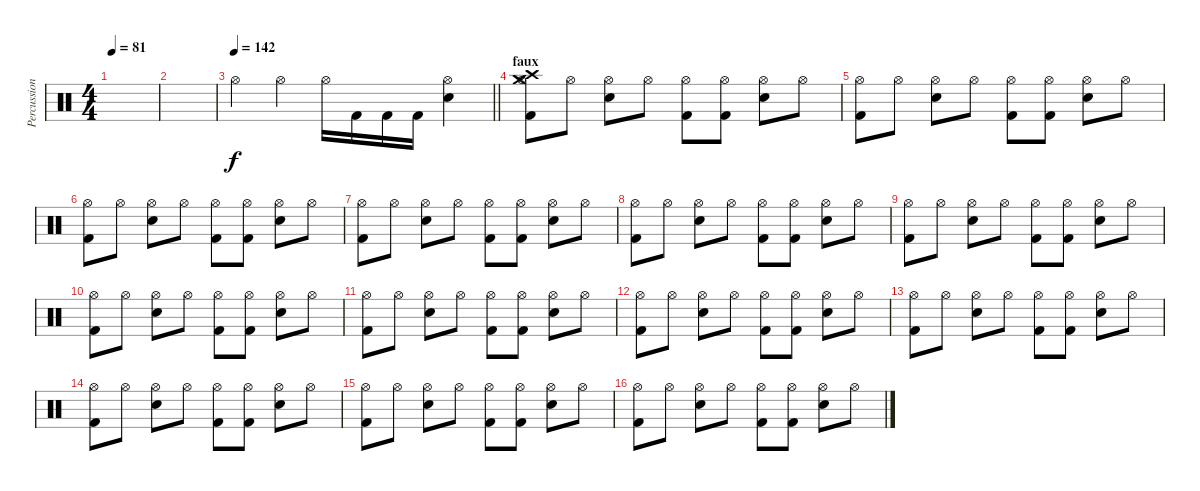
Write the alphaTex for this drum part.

\track ("Percussions" "Percussion") {instrument percussion}
\staff {score}
\articulation defaults
\ts (4 4)
\tempo 81
\clef neutral
\ks c
|
|
\tempo 142
\barLineRight lightlight "Hi-Hat (open)".4 "Hi-Hat (open)".4 "Hi-Hat (open)".16 "Kick (hit) 2".16 "Kick (hit) 2".16 "Kick (hit) 2".16
("Hi-Hat (open)" "Snare (hit) 2").4 |
\section ("" "faux")
("Crash medium (hit)" "Crash high (hit)" "Hi-Hat (open)" "Kick (hit) 2").8 "Hi-Hat (open)".8 ("Hi-Hat (open)" "Snare (hit) 2").8 "Hi-Hat (open)".8 ("Hi-Hat (open)" "Kick (hit) 2").8 ("Hi-Hat (open)" "Kick (hit) 2").8 ("Hi-Hat (open)" "Snare (hit) 2").8 "Hi-Hat (open)".8 |
("Hi-Hat (open)" "Kick (hit) 2").8 "Hi-Hat (open)".8 ("Hi-Hat (open)" "Snare (hit) 2").8 "Hi-Hat (open)".8 ("Hi-Hat (open)" "Kick (hit) 2").8 ("Hi-Hat (open)" "Kick (hit) 2").8 ("Hi-Hat (open)" "Snare (hit) 2").8 "Hi-Hat (open)".8 |
("Hi-Hat (open)" "Kick (hit) 2").8 "Hi-Hat (open)".8 ("Hi-Hat (open)" "Snare (hit) 2").8 "Hi-Hat (open)".8 ("Hi-Hat (open)" "Kick (hit) 2").8 ("Hi-Hat (open)" "Kick (hit) 2").8 ("Hi-Hat (open)" "Snare (hit) 2").8 "Hi-Hat (open)".8 |
("Hi-Hat (open)" "Kick (hit) 2").8 "Hi-Hat (open)".8 ("Hi-Hat (open)" "Snare (hit) 2").8 "Hi-Hat (open)".8 ("Hi-Hat (open)" "Kick (hit) 2").8 ("Hi-Hat (open)" "Kick (hit) 2").8 ("Hi-Hat (open)" "Snare (hit) 2").8 "Hi-Hat (open)".8 |
("Hi-Hat (open)" "Kick (hit) 2").8 "Hi-Hat (open)".8 ("Hi-Hat (open)" "Snare (hit) 2").8 "Hi-Hat (open)".8 ("Hi-Hat (open)" "Kick (hit) 2").8 ("Hi-Hat (open)" "Kick (hit) 2").8 ("Hi-Hat (open)" "Snare (hit) 2").8 "Hi-Hat (open)".8 |
("Hi-Hat (open)" "Kick (hit) 2").8 "Hi-Hat (open)".8 ("Hi-Hat (open)" "Snare (hit) 2").8 "Hi-Hat (open)".8 ("Hi-Hat (open)" "Kick (hit) 2").8 ("Hi-Hat (open)" "Kick (hit) 2").8 ("Hi-Hat (open)" "Snare (hit) 2").8 "Hi-Hat (open)".8 |
("Hi-Hat (open)" "Kick (hit) 2").8 "Hi-Hat (open)".8 ("Hi-Hat (open)" "Snare (hit) 2").8 "Hi-Hat (open)".8 ("Hi-Hat (open)" "Kick (hit) 2").8 ("Hi-Hat (open)" "Kick (hit) 2").8 ("Hi-Hat (open)" "Snare (hit) 2").8 "Hi-Hat (open)".8 |
("Hi-Hat (open)" "Kick (hit) 2").8 "Hi-Hat (open)".8 ("Hi-Hat (open)" "Snare (hit) 2").8 "Hi-Hat (open)".8 ("Hi-Hat (open)" "Kick (hit) 2").8 ("Hi-Hat (open)" "Kick (hit) 2").8 ("Hi-Hat (open)" "Snare (hit) 2").8 "Hi-Hat (open)".8 |
("Hi-Hat (open)" "Kick (hit) 2").8 "Hi-Hat (open)".8 ("Hi-Hat (open)" "Snare (hit) 2").8 "Hi-Hat (open)".8 ("Hi-Hat (open)" "Kick (hit) 2").8 ("Hi-Hat (open)" "Kick (hit) 2").8 ("Hi-Hat (open)" "Snare (hit) 2").8 "Hi-Hat (open)".8 |
("Hi-Hat (open)" "Kick (hit) 2").8 "Hi-Hat (open)".8 ("Hi-Hat (open)" "Snare (hit) 2").8 "Hi-Hat (open)".8 ("Hi-Hat (open)" "Kick (hit) 2").8 ("Hi-Hat (open)" "Kick (hit) 2").8 ("Hi-Hat (open)" "Snare (hit) 2").8 "Hi-Hat (open)".8 |
("Hi-Hat (open)" "Kick (hit) 2").8 "Hi-Hat (open)".8 ("Hi-Hat (open)" "Snare (hit) 2").8 "Hi-Hat (open)".8 ("Hi-Hat (open)" "Kick (hit) 2").8 ("Hi-Hat (open)" "Kick (hit) 2").8 ("Hi-Hat (open)" "Snare (hit) 2").8 "Hi-Hat (open)".8 |
("Hi-Hat (open)" "Kick (hit) 2").8 "Hi-Hat (open)".8 ("Hi-Hat (open)" "Snare (hit) 2").8 "Hi-Hat (open)".8 ("Hi-Hat (open)" "Kick (hit) 2").8 ("Hi-Hat (open)" "Kick (hit) 2").8 ("Hi-Hat (open)" "Snare (hit) 2").8 "Hi-Hat (open)".8 |
("Hi-Hat (open)" "Kick (hit) 2").8 "Hi-Hat (open)".8 ("Hi-Hat (open)" "Snare (hit) 2").8 "Hi-Hat (open)".8 ("Hi-Hat (open)" "Kick (hit) 2").8 ("Hi-Hat (open)" "Kick (hit) 2").8 ("Hi-Hat (open)" "Snare (hit) 2").8 "Hi-Hat (open)".8
